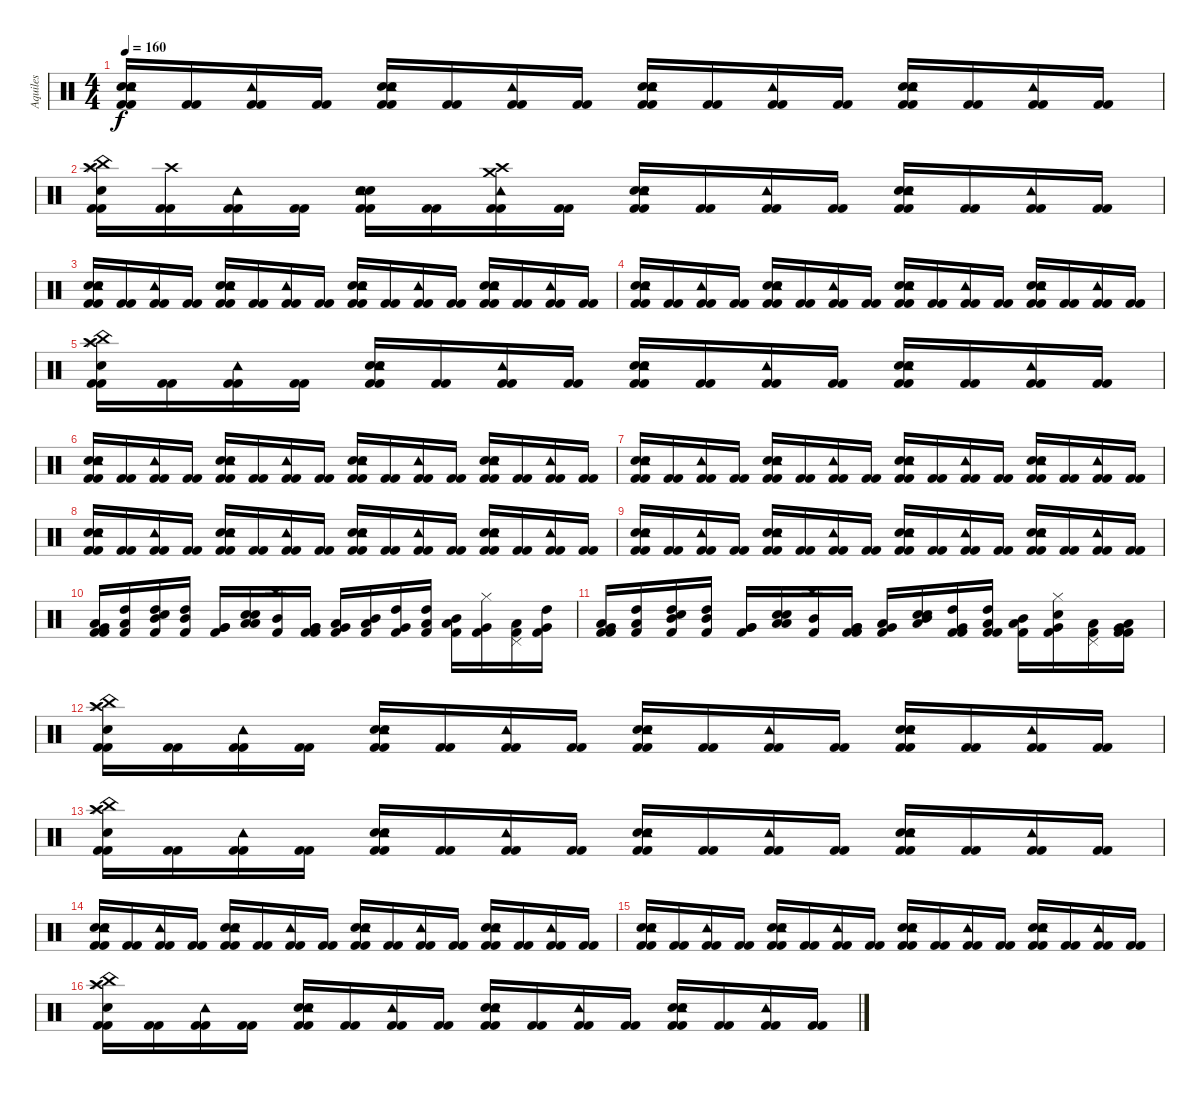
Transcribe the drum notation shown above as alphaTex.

\track ("Aquiles" "Aquiles") {instrument percussion}
\staff {score}
\articulation defaults
\ts (4 4)
\tempo 160
\clef neutral
\ks c
("Kick (hit) 2" "Kick (hit) 2" "Electric Snare (hit)" "Electric Snare (hit)" "Tambourine (hit)").16{dy f} ("Kick (hit) 2" "Kick (hit) 2").16 ("Kick (hit) 2" "Kick (hit) 2" "Tambourine (hit)").16 ("Kick (hit) 2" "Kick (hit) 2").16 ("Kick (hit) 2" "Kick (hit) 2" "Electric Snare (hit)" "Electric Snare (hit)" "Tambourine (hit)").16 ("Kick (hit) 2" "Kick (hit) 2").16 ("Kick (hit) 2" "Kick (hit) 2" "Tambourine (hit)").16 ("Kick (hit) 2" "Kick (hit) 2").16 ("Kick (hit) 2" "Kick (hit) 2" "Electric Snare (hit)" "Electric Snare (hit)" "Tambourine (hit)").16 ("Kick (hit) 2" "Kick (hit) 2").16 ("Kick (hit) 2" "Kick (hit) 2" "Tambourine (hit)").16 ("Kick (hit) 2" "Kick (hit) 2").16 ("Kick (hit) 2" "Kick (hit) 2" "Electric Snare (hit)" "Electric Snare (hit)" "Tambourine (hit)").16 ("Kick (hit) 2" "Kick (hit) 2").16 ("Kick (hit) 2" "Kick (hit) 2" "Tambourine (hit)").16 ("Kick (hit) 2" "Kick (hit) 2").16 |
("Kick (hit) 2" "Kick (hit) 2" "Electric Snare (hit)" "Crash high (hit)" "Splash (hit)" "China (hit)").16 ("Kick (hit) 2" "Kick (hit) 2" "Crash high (hit)").16 ("Kick (hit) 2" "Kick (hit) 2" "Tambourine (hit)").16 ("Kick (hit) 2" "Kick (hit) 2").16 ("Kick (hit) 2" "Kick (hit) 2" "Electric Snare (hit)" "Electric Snare (hit)" "Tambourine (hit)").16 ("Kick (hit) 2" "Kick (hit) 2").16 ("Kick (hit) 2" "Kick (hit) 2" "Crash high (hit)" "Tambourine (hit)" "Crash medium (hit)").16 ("Kick (hit) 2" "Kick (hit) 2").16 ("Kick (hit) 2" "Kick (hit) 2" "Electric Snare (hit)" "Electric Snare (hit)" "Tambourine (hit)").16 ("Kick (hit) 2" "Kick (hit) 2").16 ("Kick (hit) 2" "Kick (hit) 2" "Tambourine (hit)").16 ("Kick (hit) 2" "Kick (hit) 2").16 ("Kick (hit) 2" "Kick (hit) 2" "Electric Snare (hit)" "Electric Snare (hit)" "Tambourine (hit)").16 ("Kick (hit) 2" "Kick (hit) 2").16 ("Kick (hit) 2" "Kick (hit) 2" "Tambourine (hit)").16 ("Kick (hit) 2" "Kick (hit) 2").16 |
("Kick (hit) 2" "Kick (hit) 2" "Electric Snare (hit)" "Electric Snare (hit)" "Tambourine (hit)").16 ("Kick (hit) 2" "Kick (hit) 2").16 ("Kick (hit) 2" "Kick (hit) 2" "Tambourine (hit)").16 ("Kick (hit) 2" "Kick (hit) 2").16 ("Kick (hit) 2" "Kick (hit) 2" "Electric Snare (hit)" "Electric Snare (hit)" "Tambourine (hit)").16 ("Kick (hit) 2" "Kick (hit) 2").16 ("Kick (hit) 2" "Kick (hit) 2" "Tambourine (hit)").16 ("Kick (hit) 2" "Kick (hit) 2").16 ("Kick (hit) 2" "Kick (hit) 2" "Electric Snare (hit)" "Electric Snare (hit)" "Tambourine (hit)").16 ("Kick (hit) 2" "Kick (hit) 2").16 ("Kick (hit) 2" "Kick (hit) 2" "Tambourine (hit)").16 ("Kick (hit) 2" "Kick (hit) 2").16 ("Kick (hit) 2" "Kick (hit) 2" "Electric Snare (hit)" "Electric Snare (hit)" "Tambourine (hit)").16 ("Kick (hit) 2" "Kick (hit) 2").16 ("Kick (hit) 2" "Kick (hit) 2" "Tambourine (hit)").16 ("Kick (hit) 2" "Kick (hit) 2").16 |
("Kick (hit) 2" "Kick (hit) 2" "Electric Snare (hit)" "Electric Snare (hit)" "Tambourine (hit)").16 ("Kick (hit) 2" "Kick (hit) 2").16 ("Kick (hit) 2" "Kick (hit) 2" "Tambourine (hit)").16 ("Kick (hit) 2" "Kick (hit) 2").16 ("Kick (hit) 2" "Kick (hit) 2" "Electric Snare (hit)" "Electric Snare (hit)" "Tambourine (hit)").16 ("Kick (hit) 2" "Kick (hit) 2").16 ("Kick (hit) 2" "Kick (hit) 2" "Tambourine (hit)").16 ("Kick (hit) 2" "Kick (hit) 2").16 ("Kick (hit) 2" "Kick (hit) 2" "Electric Snare (hit)" "Electric Snare (hit)" "Tambourine (hit)").16 ("Kick (hit) 2" "Kick (hit) 2").16 ("Kick (hit) 2" "Kick (hit) 2" "Tambourine (hit)").16 ("Kick (hit) 2" "Kick (hit) 2").16 ("Kick (hit) 2" "Kick (hit) 2" "Electric Snare (hit)" "Electric Snare (hit)" "Tambourine (hit)").16 ("Kick (hit) 2" "Kick (hit) 2").16 ("Kick (hit) 2" "Kick (hit) 2" "Tambourine (hit)").16 ("Kick (hit) 2" "Kick (hit) 2").16 |
("Kick (hit) 2" "Kick (hit) 2" "Electric Snare (hit)" "Crash high (hit)" "Splash (hit)" "China (hit)").16 ("Kick (hit) 2" "Kick (hit) 2").16 ("Kick (hit) 2" "Kick (hit) 2" "Tambourine (hit)").16 ("Kick (hit) 2" "Kick (hit) 2").16 ("Kick (hit) 2" "Kick (hit) 2" "Electric Snare (hit)" "Electric Snare (hit)" "Tambourine (hit)").16 ("Kick (hit) 2" "Kick (hit) 2").16 ("Kick (hit) 2" "Kick (hit) 2" "Tambourine (hit)").16 ("Kick (hit) 2" "Kick (hit) 2").16 ("Kick (hit) 2" "Kick (hit) 2" "Electric Snare (hit)" "Electric Snare (hit)" "Tambourine (hit)").16 ("Kick (hit) 2" "Kick (hit) 2").16 ("Kick (hit) 2" "Kick (hit) 2" "Tambourine (hit)").16 ("Kick (hit) 2" "Kick (hit) 2").16 ("Kick (hit) 2" "Kick (hit) 2" "Electric Snare (hit)" "Electric Snare (hit)" "Tambourine (hit)").16 ("Kick (hit) 2" "Kick (hit) 2").16 ("Kick (hit) 2" "Kick (hit) 2" "Tambourine (hit)").16 ("Kick (hit) 2" "Kick (hit) 2").16 |
("Kick (hit) 2" "Kick (hit) 2" "Electric Snare (hit)" "Electric Snare (hit)" "Tambourine (hit)").16 ("Kick (hit) 2" "Kick (hit) 2").16 ("Kick (hit) 2" "Kick (hit) 2" "Tambourine (hit)").16 ("Kick (hit) 2" "Kick (hit) 2").16 ("Kick (hit) 2" "Kick (hit) 2" "Electric Snare (hit)" "Electric Snare (hit)" "Tambourine (hit)").16 ("Kick (hit) 2" "Kick (hit) 2").16 ("Kick (hit) 2" "Kick (hit) 2" "Tambourine (hit)").16 ("Kick (hit) 2" "Kick (hit) 2").16 ("Kick (hit) 2" "Kick (hit) 2" "Electric Snare (hit)" "Electric Snare (hit)" "Tambourine (hit)").16 ("Kick (hit) 2" "Kick (hit) 2").16 ("Kick (hit) 2" "Kick (hit) 2" "Tambourine (hit)").16 ("Kick (hit) 2" "Kick (hit) 2").16 ("Kick (hit) 2" "Kick (hit) 2" "Electric Snare (hit)" "Electric Snare (hit)" "Tambourine (hit)").16 ("Kick (hit) 2" "Kick (hit) 2").16 ("Kick (hit) 2" "Kick (hit) 2" "Tambourine (hit)").16 ("Kick (hit) 2" "Kick (hit) 2").16 |
("Kick (hit) 2" "Kick (hit) 2" "Electric Snare (hit)" "Electric Snare (hit)" "Tambourine (hit)").16 ("Kick (hit) 2" "Kick (hit) 2").16 ("Kick (hit) 2" "Kick (hit) 2" "Tambourine (hit)").16 ("Kick (hit) 2" "Kick (hit) 2").16 ("Kick (hit) 2" "Kick (hit) 2" "Electric Snare (hit)" "Electric Snare (hit)" "Tambourine (hit)").16 ("Kick (hit) 2" "Kick (hit) 2").16 ("Kick (hit) 2" "Kick (hit) 2" "Tambourine (hit)").16 ("Kick (hit) 2" "Kick (hit) 2").16 ("Kick (hit) 2" "Kick (hit) 2" "Electric Snare (hit)" "Electric Snare (hit)" "Tambourine (hit)").16 ("Kick (hit) 2" "Kick (hit) 2").16 ("Kick (hit) 2" "Kick (hit) 2" "Tambourine (hit)").16 ("Kick (hit) 2" "Kick (hit) 2").16 ("Kick (hit) 2" "Kick (hit) 2" "Electric Snare (hit)" "Electric Snare (hit)" "Tambourine (hit)").16 ("Kick (hit) 2" "Kick (hit) 2").16 ("Kick (hit) 2" "Kick (hit) 2" "Tambourine (hit)").16 ("Kick (hit) 2" "Kick (hit) 2").16 |
("Kick (hit) 2" "Kick (hit) 2" "Electric Snare (hit)" "Electric Snare (hit)" "Tambourine (hit)").16 ("Kick (hit) 2" "Kick (hit) 2").16 ("Kick (hit) 2" "Kick (hit) 2" "Tambourine (hit)").16 ("Kick (hit) 2" "Kick (hit) 2").16 ("Kick (hit) 2" "Kick (hit) 2" "Electric Snare (hit)" "Electric Snare (hit)" "Tambourine (hit)").16 ("Kick (hit) 2" "Kick (hit) 2").16 ("Kick (hit) 2" "Kick (hit) 2" "Tambourine (hit)").16 ("Kick (hit) 2" "Kick (hit) 2").16 ("Kick (hit) 2" "Kick (hit) 2" "Electric Snare (hit)" "Electric Snare (hit)" "Tambourine (hit)").16 ("Kick (hit) 2" "Kick (hit) 2").16 ("Kick (hit) 2" "Kick (hit) 2" "Tambourine (hit)").16 ("Kick (hit) 2" "Kick (hit) 2").16 ("Kick (hit) 2" "Kick (hit) 2" "Electric Snare (hit)" "Electric Snare (hit)" "Tambourine (hit)").16 ("Kick (hit) 2" "Kick (hit) 2").16 ("Kick (hit) 2" "Kick (hit) 2" "Tambourine (hit)").16 ("Kick (hit) 2" "Kick (hit) 2").16 |
("Kick (hit) 2" "Kick (hit) 2" "Electric Snare (hit)" "Electric Snare (hit)" "Tambourine (hit)").16 ("Kick (hit) 2" "Kick (hit) 2").16 ("Kick (hit) 2" "Kick (hit) 2" "Tambourine (hit)").16 ("Kick (hit) 2" "Kick (hit) 2").16 ("Kick (hit) 2" "Kick (hit) 2" "Electric Snare (hit)" "Electric Snare (hit)" "Tambourine (hit)").16 ("Kick (hit) 2" "Kick (hit) 2").16 ("Kick (hit) 2" "Kick (hit) 2" "Tambourine (hit)").16 ("Kick (hit) 2" "Kick (hit) 2").16 ("Kick (hit) 2" "Kick (hit) 2" "Electric Snare (hit)" "Electric Snare (hit)" "Tambourine (hit)").16 ("Kick (hit) 2" "Kick (hit) 2").16 ("Kick (hit) 2" "Kick (hit) 2" "Tambourine (hit)").16 ("Kick (hit) 2" "Kick (hit) 2").16 ("Kick (hit) 2" "Kick (hit) 2" "Electric Snare (hit)" "Electric Snare (hit)" "Tambourine (hit)").16 ("Kick (hit) 2" "Kick (hit) 2").16 ("Kick (hit) 2" "Kick (hit) 2" "Tambourine (hit)").16 ("Kick (hit) 2" "Kick (hit) 2").16 |
("Kick (hit) 2" "Kick (hit) 2" "Very Low Tom (hit)" "Low Floor Tom (hit)").16 ("Kick (hit) 2" "Low Floor Tom (hit)" "High Tom (hit)").16 ("Electric Snare (hit)" "Kick (hit) 2" "Mid Tom (hit)" "High Tom (hit)").16 ("Kick (hit) 2" "Mid Tom (hit)" "High Tom (hit)").16 ("Kick (hit) 2" "Very Low Tom (hit)" "Very Low Tom (hit)").16 ("Electric Snare (hit)" "Electric Snare (hit)" "Low Floor Tom (hit)" "Low Floor Tom (hit)").16 ("Kick (hit) 2" "Mid Tom (hit)" "Crash high (hit)").16 ("Kick (hit) 2" "Kick (hit) 2" "Very Low Tom (hit)" "Very Low Tom (hit)").16 ("Kick (hit) 2" "Low Tom (hit)" "Very Low Tom (hit)").16 ("Kick (hit) 2" "Mid Tom (hit)" "Low Tom (hit)").16 ("Kick (hit) 2" "High Tom (hit)" "Very Low Tom (hit)").16 ("Kick (hit) 2" "High Tom (hit)" "Low Tom (hit)").16 ("Kick (hit) 2" "Low Tom (hit)" "Mid Tom (hit)").16 ("Kick (hit) 2" "Very Low Tom (hit)" "Hi-Hat (closed)").16 ("Kick (hit) 2" "Pedal Hi-Hat (hit)" "Low Tom (hit)").16 ("Kick (hit) 2" "Very Low Tom (hit)" "High Tom (hit)").16 |
("Kick (hit) 2" "Kick (hit) 2" "Very Low Tom (hit)" "Low Floor Tom (hit)").16 ("Kick (hit) 2" "Low Floor Tom (hit)" "High Tom (hit)").16 ("Electric Snare (hit)" "Kick (hit) 2" "Mid Tom (hit)" "High Tom (hit)").16 ("Kick (hit) 2" "Mid Tom (hit)" "High Tom (hit)").16 ("Kick (hit) 2" "Very Low Tom (hit)" "Very Low Tom (hit)").16 ("Electric Snare (hit)" "Electric Snare (hit)" "Low Floor Tom (hit)" "Low Floor Tom (hit)").16 ("Kick (hit) 2" "Mid Tom (hit)" "Crash high (hit)").16 ("Kick (hit) 2" "Kick (hit) 2" "Very Low Tom (hit)" "Very Low Tom (hit)").16 ("Kick (hit) 2" "Low Tom (hit)" "Very Low Tom (hit)").16 ("Electric Snare (hit)" "Electric Snare (hit)" "Mid Tom (hit)" "Low Tom (hit)").16 ("Kick (hit) 2" "Kick (hit) 2" "High Tom (hit)" "Very Low Tom (hit)").16 ("Kick (hit) 2" "Kick (hit) 2" "High Tom (hit)" "Low Tom (hit)").16 ("Kick (hit) 2" "Low Tom (hit)" "Mid Tom (hit)").16 ("Electric Snare (hit)" "Kick (hit) 2" "Very Low Tom (hit)" "Hi-Hat (closed)").16 ("Kick (hit) 2" "Pedal Hi-Hat (hit)" "Low Tom (hit)").16 ("Kick (hit) 2" "Kick (hit) 2" "Very Low Tom (hit)" "Low Tom (hit)").16 |
("Kick (hit) 2" "Kick (hit) 2" "Electric Snare (hit)" "Splash (hit)" "Crash high (hit)" "China (hit)").16 ("Kick (hit) 2" "Kick (hit) 2").16 ("Kick (hit) 2" "Kick (hit) 2" "Tambourine (hit)").16 ("Kick (hit) 2" "Kick (hit) 2").16 ("Kick (hit) 2" "Kick (hit) 2" "Electric Snare (hit)" "Electric Snare (hit)" "Tambourine (hit)").16 ("Kick (hit) 2" "Kick (hit) 2").16 ("Kick (hit) 2" "Kick (hit) 2" "Tambourine (hit)").16 ("Kick (hit) 2" "Kick (hit) 2").16 ("Kick (hit) 2" "Kick (hit) 2" "Electric Snare (hit)" "Electric Snare (hit)" "Tambourine (hit)").16 ("Kick (hit) 2" "Kick (hit) 2").16 ("Kick (hit) 2" "Kick (hit) 2" "Tambourine (hit)").16 ("Kick (hit) 2" "Kick (hit) 2").16 ("Kick (hit) 2" "Kick (hit) 2" "Electric Snare (hit)" "Electric Snare (hit)" "Tambourine (hit)").16 ("Kick (hit) 2" "Kick (hit) 2").16 ("Kick (hit) 2" "Kick (hit) 2" "Tambourine (hit)").16 ("Kick (hit) 2" "Kick (hit) 2").16 |
("Kick (hit) 2" "Kick (hit) 2" "Electric Snare (hit)" "Crash high (hit)" "Splash (hit)" "China (hit)").16 ("Kick (hit) 2" "Kick (hit) 2").16 ("Kick (hit) 2" "Kick (hit) 2" "Tambourine (hit)").16 ("Kick (hit) 2" "Kick (hit) 2").16 ("Kick (hit) 2" "Kick (hit) 2" "Electric Snare (hit)" "Electric Snare (hit)" "Tambourine (hit)").16 ("Kick (hit) 2" "Kick (hit) 2").16 ("Kick (hit) 2" "Kick (hit) 2" "Tambourine (hit)").16 ("Kick (hit) 2" "Kick (hit) 2").16 ("Kick (hit) 2" "Kick (hit) 2" "Electric Snare (hit)" "Electric Snare (hit)" "Tambourine (hit)").16 ("Kick (hit) 2" "Kick (hit) 2").16 ("Kick (hit) 2" "Kick (hit) 2" "Tambourine (hit)").16 ("Kick (hit) 2" "Kick (hit) 2").16 ("Kick (hit) 2" "Kick (hit) 2" "Electric Snare (hit)" "Electric Snare (hit)" "Tambourine (hit)").16 ("Kick (hit) 2" "Kick (hit) 2").16 ("Kick (hit) 2" "Kick (hit) 2" "Tambourine (hit)").16 ("Kick (hit) 2" "Kick (hit) 2").16 |
("Kick (hit) 2" "Kick (hit) 2" "Electric Snare (hit)" "Electric Snare (hit)" "Tambourine (hit)").16 ("Kick (hit) 2" "Kick (hit) 2").16 ("Kick (hit) 2" "Kick (hit) 2" "Tambourine (hit)").16 ("Kick (hit) 2" "Kick (hit) 2").16 ("Kick (hit) 2" "Kick (hit) 2" "Electric Snare (hit)" "Electric Snare (hit)" "Tambourine (hit)").16 ("Kick (hit) 2" "Kick (hit) 2").16 ("Kick (hit) 2" "Kick (hit) 2" "Tambourine (hit)").16 ("Kick (hit) 2" "Kick (hit) 2").16 ("Kick (hit) 2" "Kick (hit) 2" "Electric Snare (hit)" "Electric Snare (hit)" "Tambourine (hit)").16 ("Kick (hit) 2" "Kick (hit) 2").16 ("Kick (hit) 2" "Kick (hit) 2" "Tambourine (hit)").16 ("Kick (hit) 2" "Kick (hit) 2").16 ("Kick (hit) 2" "Kick (hit) 2" "Electric Snare (hit)" "Electric Snare (hit)" "Tambourine (hit)").16 ("Kick (hit) 2" "Kick (hit) 2").16 ("Kick (hit) 2" "Kick (hit) 2" "Tambourine (hit)").16 ("Kick (hit) 2" "Kick (hit) 2").16 |
("Kick (hit) 2" "Kick (hit) 2" "Electric Snare (hit)" "Electric Snare (hit)" "Tambourine (hit)").16 ("Kick (hit) 2" "Kick (hit) 2").16 ("Kick (hit) 2" "Kick (hit) 2" "Tambourine (hit)").16 ("Kick (hit) 2" "Kick (hit) 2").16 ("Kick (hit) 2" "Kick (hit) 2" "Electric Snare (hit)" "Electric Snare (hit)" "Tambourine (hit)").16 ("Kick (hit) 2" "Kick (hit) 2").16 ("Kick (hit) 2" "Kick (hit) 2" "Tambourine (hit)").16 ("Kick (hit) 2" "Kick (hit) 2").16 ("Kick (hit) 2" "Kick (hit) 2" "Electric Snare (hit)" "Electric Snare (hit)" "Tambourine (hit)").16 ("Kick (hit) 2" "Kick (hit) 2").16 ("Kick (hit) 2" "Kick (hit) 2" "Tambourine (hit)").16 ("Kick (hit) 2" "Kick (hit) 2").16 ("Kick (hit) 2" "Kick (hit) 2" "Electric Snare (hit)" "Electric Snare (hit)" "Tambourine (hit)").16 ("Kick (hit) 2" "Kick (hit) 2").16 ("Kick (hit) 2" "Kick (hit) 2" "Tambourine (hit)").16 ("Kick (hit) 2" "Kick (hit) 2").16 |
("Kick (hit) 2" "Kick (hit) 2" "Electric Snare (hit)" "Crash high (hit)" "Splash (hit)" "China (hit)").16 ("Kick (hit) 2" "Kick (hit) 2").16 ("Kick (hit) 2" "Kick (hit) 2" "Tambourine (hit)").16 ("Kick (hit) 2" "Kick (hit) 2").16 ("Kick (hit) 2" "Kick (hit) 2" "Electric Snare (hit)" "Electric Snare (hit)" "Tambourine (hit)").16 ("Kick (hit) 2" "Kick (hit) 2").16 ("Kick (hit) 2" "Kick (hit) 2" "Tambourine (hit)").16 ("Kick (hit) 2" "Kick (hit) 2").16 ("Kick (hit) 2" "Kick (hit) 2" "Electric Snare (hit)" "Electric Snare (hit)" "Tambourine (hit)").16 ("Kick (hit) 2" "Kick (hit) 2").16 ("Kick (hit) 2" "Kick (hit) 2" "Tambourine (hit)").16 ("Kick (hit) 2" "Kick (hit) 2").16 ("Kick (hit) 2" "Kick (hit) 2" "Electric Snare (hit)" "Electric Snare (hit)" "Tambourine (hit)").16 ("Kick (hit) 2" "Kick (hit) 2").16 ("Kick (hit) 2" "Kick (hit) 2" "Tambourine (hit)").16 ("Kick (hit) 2" "Kick (hit) 2").16
